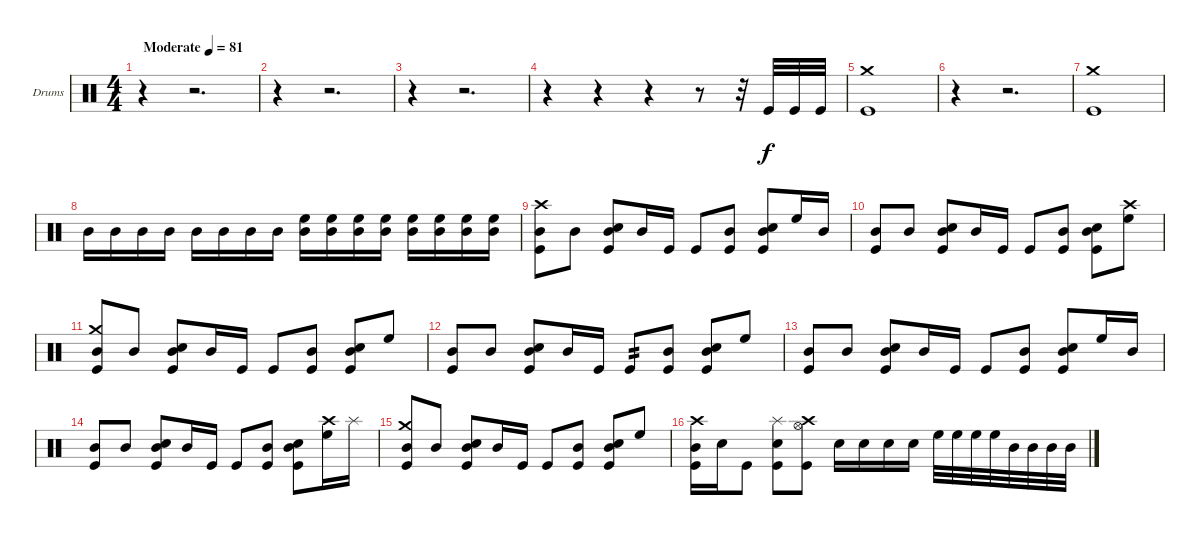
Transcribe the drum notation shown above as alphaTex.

\bracketExtendMode groupsimilarinstruments
\firstSystemTrackNameOrientation horizontal
\otherSystemsTrackNameOrientation horizontal
\track ("Drumkit" "Drums") {instrument percussion}
\staff {score}
\articulation defaults
\ts (4 4)
\beaming (8 2 2 2 2)
\tempo (81 "Moderate")
\clef neutral
\ks c
r.4{dy f} r.2{d} |
r.4 r.2{d} |
r.4 r.2{d} |
r.4 r.4 r.4 r.8 r.32 "Kick (hit)".32 "Kick (hit)".32 "Kick (hit)".32 |
("Crash medium (hit)" "Kick (hit)").1 |
r.4 r.2{d} |
("Crash medium (hit)" "Kick (hit)").1 |
"Mid Tom (hit)".16 "Mid Tom (hit)".16 "Mid Tom (hit)".16 "Mid Tom (hit)".16 "Mid Tom (hit)".16 "Mid Tom (hit)".16 "Mid Tom (hit)".16 "Mid Tom (hit)".16 ("High Floor Tom (hit)" "Mid Tom (hit)").16 ("High Floor Tom (hit)" "Mid Tom (hit)").16 ("High Floor Tom (hit)" "Mid Tom (hit)").16 ("High Floor Tom (hit)" "Mid Tom (hit)").16 ("High Floor Tom (hit)" "Mid Tom (hit)").16 ("High Floor Tom (hit)" "Mid Tom (hit)").16 ("High Floor Tom (hit)" "Mid Tom (hit)").16 ("High Floor Tom (hit)" "Mid Tom (hit)").16 |
("Crash high (hit)" "Mid Tom (hit)" "Kick (hit)").8 "Mid Tom (hit)".8 ("Mid Tom (hit)" "Snare (hit) 2" "Kick (hit)").8 "Mid Tom (hit)".16 "Kick (hit)".16 "Kick (hit)".8 ("Mid Tom (hit)" "Kick (hit)").8 ("Mid Tom (hit)" "Snare (hit) 2" "Kick (hit)").8 "High Floor Tom (hit)".16 "Mid Tom (hit)".16 |
("Mid Tom (hit)" "Kick (hit)").8 "Mid Tom (hit)".8 ("Mid Tom (hit)" "Snare (hit) 2" "Kick (hit)").8 "Mid Tom (hit)".16 "Kick (hit)".16 "Kick (hit)".8 ("Mid Tom (hit)" "Kick (hit)").8 ("Mid Tom (hit)" "Snare (hit) 2" "Kick (hit)").8 ("Crash high (hit)" "High Floor Tom (hit)").8 |
("Crash medium (hit)" "Mid Tom (hit)" "Kick (hit)").8 "Mid Tom (hit)".8 ("Mid Tom (hit)" "Snare (hit) 2" "Kick (hit)").8 "Mid Tom (hit)".16 "Kick (hit)".16 "Kick (hit)".8 ("Mid Tom (hit)" "Kick (hit)").8 ("Mid Tom (hit)" "Snare (hit) 2" "Kick (hit)").8 "High Floor Tom (hit)".8 |
("Mid Tom (hit)" "Kick (hit)").8 "Mid Tom (hit)".8 ("Mid Tom (hit)" "Snare (hit) 2" "Kick (hit)").8 "Mid Tom (hit)".16 "Kick (hit)".16 "Kick (hit)".8{tp 2} ("Mid Tom (hit)" "Kick (hit)").8 ("Mid Tom (hit)" "Snare (hit) 2" "Kick (hit)").8 "High Floor Tom (hit)".8 |
("Mid Tom (hit)" "Kick (hit)").8 "Mid Tom (hit)".8 ("Mid Tom (hit)" "Snare (hit) 2" "Kick (hit)").8 "Mid Tom (hit)".16 "Kick (hit)".16 "Kick (hit)".8 ("Mid Tom (hit)" "Kick (hit)").8 ("Mid Tom (hit)" "Snare (hit) 2" "Kick (hit)").8 "High Floor Tom (hit)".16 "Mid Tom (hit)".16 |
("Mid Tom (hit)" "Kick (hit)").8 "Mid Tom (hit)".8 ("Mid Tom (hit)" "Snare (hit) 2" "Kick (hit)").8 "Mid Tom (hit)".16 "Kick (hit)".16 "Kick (hit)".8 ("Mid Tom (hit)" "Kick (hit)").8 ("Mid Tom (hit)" "Snare (hit) 2" "Kick (hit)").8 ("Crash high (hit)" "High Floor Tom (hit)").16 "Splash (hit)".16 |
("Crash medium (hit)" "Mid Tom (hit)" "Kick (hit)").8 "Mid Tom (hit)".8 ("Mid Tom (hit)" "Snare (hit) 2" "Kick (hit)").8 "Mid Tom (hit)".16 "Kick (hit)".16 "Kick (hit)".8 ("Mid Tom (hit)" "Kick (hit)").8 ("Mid Tom (hit)" "Snare (hit) 2" "Kick (hit)").8 "High Floor Tom (hit)".8 |
("Crash high (hit)" "Mid Tom (hit)" "Kick (hit)").16 "Snare (hit) 2".16 "Kick (hit)".8 ("Splash (hit)" "Snare (hit) 2" "Kick (hit)").8 ("Crash high (hit)" "Hi-Hat (open)" "Kick (hit)").8 "Snare (hit) 2".16 "Snare (hit) 2".16 "Snare (hit) 2".16 "Snare (hit) 2".16 "High Floor Tom (hit)".32 "High Floor Tom (hit)".32 "High Floor Tom (hit)".32 "High Floor Tom (hit)".32 "Mid Tom (hit)".32 "Mid Tom (hit)".32 "Mid Tom (hit)".32 "Mid Tom (hit)".32
